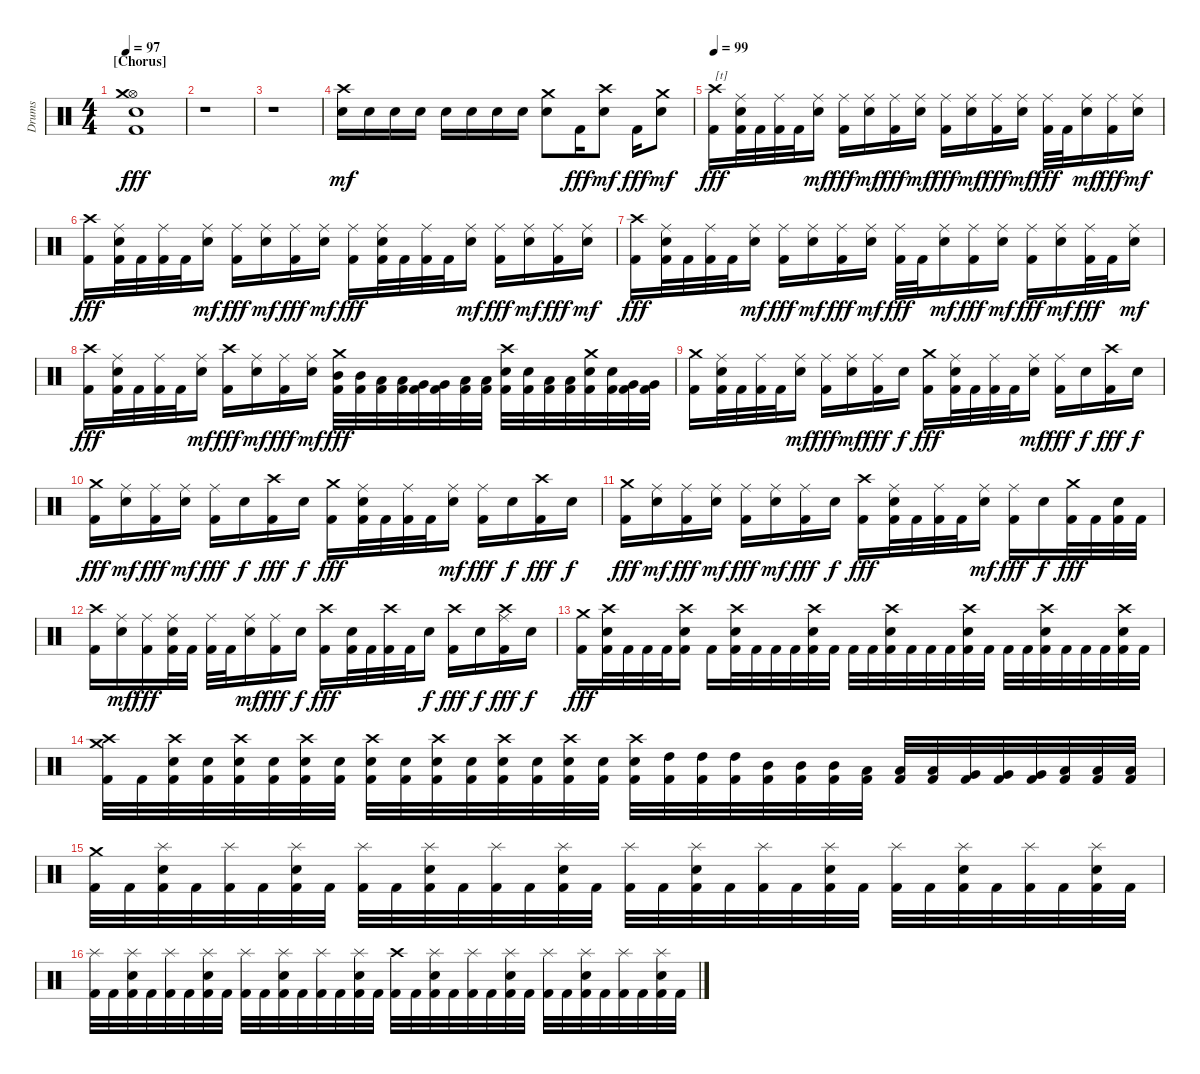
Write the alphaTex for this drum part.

\track ("Drums" "Drums") {instrument percussion}
\staff {score}
\articulation defaults
\ts (4 4)
\section ("" "[Chorus]")
\tempo 97
\clef neutral
\ks c
("Hi-Hat (open)" "Crash medium (hit)" "Snare (hit) 2" "Kick (hit) 2").1{dy fff} |
r.1 |
r.1 |
("Crash high (hit)" "Snare (hit) 2").16{dy mf} "Snare (hit) 2".16 "Snare (hit) 2".16 "Snare (hit) 2".16 "Snare (hit) 2".16 "Snare (hit) 2".16 "Snare (hit) 2".16 "Snare (hit) 2".16 ("Crash medium (hit)" "Snare (hit) 2").8 "Kick (hit) 2".16{dy fff} ("Crash high (hit)" "Snare (hit) 2").8{dy mf} "Kick (hit) 2".16{dy fff} ("Crash medium (hit)" "Snare (hit) 2").8{dy mf} |
\section ("" "")
\tempo 99
("Crash high (hit)" "Kick (hit) 2").16{txt "[t]" dy fff} ("Ride (middle)" "Snare (hit) 2" "Kick (hit) 2").32 "Kick (hit) 2".32 ("Ride (middle)" "Kick (hit) 2").32 "Kick (hit) 2".32 ("Ride (middle)" "Snare (hit) 2").16{dy mf} ("Ride (middle)" "Kick (hit) 2").16{dy fff} ("Ride (middle)" "Snare (hit) 2").16{dy mf} ("Ride (middle)" "Kick (hit) 2").16{dy fff} ("Ride (middle)" "Snare (hit) 2").16{dy mf} ("Ride (middle)" "Kick (hit) 2").16{dy fff} ("Ride (middle)" "Snare (hit) 2").16{dy mf} ("Ride (middle)" "Kick (hit) 2").16{dy fff} ("Ride (middle)" "Snare (hit) 2").16{dy mf} ("Ride (middle)" "Kick (hit) 2").32{dy fff} "Kick (hit) 2".32 ("Ride (middle)" "Snare (hit) 2").16{dy mf} ("Ride (middle)" "Kick (hit) 2").16{dy fff} ("Ride (middle)" "Snare (hit) 2").16{dy mf} |
("Crash high (hit)" "Kick (hit) 2").16{dy fff} ("Ride (middle)" "Snare (hit) 2" "Kick (hit) 2").32 "Kick (hit) 2".32 ("Ride (middle)" "Kick (hit) 2").32 "Kick (hit) 2".32 ("Ride (middle)" "Snare (hit) 2").16{dy mf} ("Ride (middle)" "Kick (hit) 2").16{dy fff} ("Ride (middle)" "Snare (hit) 2").16{dy mf} ("Ride (middle)" "Kick (hit) 2").16{dy fff} ("Ride (middle)" "Snare (hit) 2").16{dy mf} ("Ride (middle)" "Kick (hit) 2").16{dy fff} ("Ride (middle)" "Snare (hit) 2" "Kick (hit) 2").32 "Kick (hit) 2".32 ("Ride (middle)" "Kick (hit) 2").32 "Kick (hit) 2".32 ("Ride (middle)" "Snare (hit) 2").16{dy mf} ("Ride (middle)" "Kick (hit) 2").16{dy fff} ("Ride (middle)" "Snare (hit) 2").16{dy mf} ("Ride (middle)" "Kick (hit) 2").16{dy fff} ("Ride (middle)" "Snare (hit) 2").16{dy mf} |
("Crash high (hit)" "Kick (hit) 2").16{dy fff} ("Ride (middle)" "Snare (hit) 2" "Kick (hit) 2").32 "Kick (hit) 2".32 ("Ride (middle)" "Kick (hit) 2").32 "Kick (hit) 2".32 ("Ride (middle)" "Snare (hit) 2").16{dy mf} ("Ride (middle)" "Kick (hit) 2").16{dy fff} ("Ride (middle)" "Snare (hit) 2").16{dy mf} ("Ride (middle)" "Kick (hit) 2").16{dy fff} ("Ride (middle)" "Snare (hit) 2").16{dy mf} ("Ride (middle)" "Kick (hit) 2").32{dy fff} "Kick (hit) 2".32 ("Ride (middle)" "Snare (hit) 2").16{dy mf} ("Ride (middle)" "Kick (hit) 2").16{dy fff} ("Ride (middle)" "Snare (hit) 2").16{dy mf} ("Ride (middle)" "Kick (hit) 2").16{dy fff} ("Ride (middle)" "Snare (hit) 2").16{dy mf} ("Ride (middle)" "Kick (hit) 2").32{dy fff} "Kick (hit) 2".32 ("Ride (middle)" "Snare (hit) 2").16{dy mf} |
("Crash high (hit)" "Kick (hit) 2").16{dy fff} ("Ride (middle)" "Snare (hit) 2" "Kick (hit) 2").32 "Kick (hit) 2".32 ("Ride (middle)" "Kick (hit) 2").32 "Kick (hit) 2".32 ("Ride (middle)" "Snare (hit) 2").16{dy mf} ("Crash high (hit)" "Kick (hit) 2").16{dy fff} ("Ride (middle)" "Snare (hit) 2").16{dy mf} ("Ride (middle)" "Kick (hit) 2").16{dy fff} ("Ride (middle)" "Snare (hit) 2").16{dy mf} ("Crash medium (hit)" "Mid Tom (hit)" "Kick (hit) 2").32{dy fff} ("Mid Tom (hit)" "Kick (hit) 2").32 ("Low Tom (hit)" "Kick (hit) 2").32 ("Low Tom (hit)" "Kick (hit) 2").32 ("Very Low Tom (hit)" "Kick (hit) 2").32 ("Very Low Tom (hit)" "Kick (hit) 2").32 ("Low Floor Tom (hit)" "Kick (hit) 2").32 ("Low Floor Tom (hit)" "Kick (hit) 2").32 ("Crash high (hit)" "Snare (hit) 2" "Kick (hit) 2").32 ("Snare (hit) 2" "Kick (hit) 2").32 ("Low Tom (hit)" "Kick (hit) 2").32 ("Low Tom (hit)" "Kick (hit) 2").32 ("Crash medium (hit)" "Snare (hit) 2" "Kick (hit) 2").32 ("Snare (hit) 2" "Kick (hit) 2").32 ("Very Low Tom (hit)" "Kick (hit) 2").32 ("Very Low Tom (hit)" "Kick (hit) 2").32 |
("Crash medium (hit)" "Kick (hit) 2").16 ("Ride (middle)" "Snare (hit) 2" "Kick (hit) 2").32 "Kick (hit) 2".32 ("Ride (middle)" "Kick (hit) 2").32 "Kick (hit) 2".32 ("Ride (middle)" "Snare (hit) 2").16{dy mf} ("Ride (middle)" "Kick (hit) 2").16{dy fff} ("Ride (middle)" "Snare (hit) 2").16{dy mf} ("Ride (middle)" "Kick (hit) 2").16{dy fff} "Snare (hit) 2".16{dy f} ("Crash medium (hit)" "Kick (hit) 2").16{dy fff} ("Ride (middle)" "Snare (hit) 2" "Kick (hit) 2").32 "Kick (hit) 2".32 ("Ride (middle)" "Kick (hit) 2").32 "Kick (hit) 2".32 ("Ride (middle)" "Snare (hit) 2").16{dy mf} ("Ride (middle)" "Kick (hit) 2").16{dy fff} "Snare (hit) 2".16{dy f} ("Crash high (hit)" "Kick (hit) 2").16{dy fff} "Snare (hit) 2".16{dy f} |
("Crash medium (hit)" "Kick (hit) 2").16{dy fff} ("Ride (middle)" "Snare (hit) 2").16{dy mf} ("Ride (middle)" "Kick (hit) 2").16{dy fff} ("Ride (middle)" "Snare (hit) 2").16{dy mf} ("Ride (middle)" "Kick (hit) 2").16{dy fff} "Snare (hit) 2".16{dy f} ("Crash high (hit)" "Kick (hit) 2").16{dy fff} "Snare (hit) 2".16{dy f} ("Crash medium (hit)" "Kick (hit) 2").16{dy fff} ("Ride (middle)" "Snare (hit) 2" "Kick (hit) 2").32 "Kick (hit) 2".32 ("Ride (middle)" "Kick (hit) 2").32 "Kick (hit) 2".32 ("Ride (middle)" "Snare (hit) 2").16{dy mf} ("Ride (middle)" "Kick (hit) 2").16{dy fff} "Snare (hit) 2".16{dy f} ("Crash high (hit)" "Kick (hit) 2").16{dy fff} "Snare (hit) 2".16{dy f} |
("Crash medium (hit)" "Kick (hit) 2").16{dy fff} ("Ride (middle)" "Snare (hit) 2").16{dy mf} ("Ride (middle)" "Kick (hit) 2").16{dy fff} ("Ride (middle)" "Snare (hit) 2").16{dy mf} ("Ride (middle)" "Kick (hit) 2").16{dy fff} ("Ride (middle)" "Snare (hit) 2").16{dy mf} ("Ride (middle)" "Kick (hit) 2").16{dy fff} "Snare (hit) 2".16{dy f} ("Crash high (hit)" "Kick (hit) 2").16{dy fff} ("Ride (middle)" "Snare (hit) 2" "Kick (hit) 2").32 "Kick (hit) 2".32 ("Ride (middle)" "Kick (hit) 2").32 "Kick (hit) 2".32 ("Ride (middle)" "Snare (hit) 2").16{dy mf} ("Ride (middle)" "Kick (hit) 2").16{dy fff} "Snare (hit) 2".16{dy f} ("Crash medium (hit)" "Kick (hit) 2").32{dy fff} "Kick (hit) 2".32 ("Snare (hit) 2" "Kick (hit) 2").32 "Kick (hit) 2".32 |
("Crash high (hit)" "Kick (hit) 2").16 ("Ride (middle)" "Snare (hit) 2").16{dy mf} ("Ride (middle)" "Kick (hit) 2").16{dy fff} ("Ride (middle)" "Snare (hit) 2" "Kick (hit) 2").32 "Kick (hit) 2".32 ("Ride (middle)" "Kick (hit) 2").32 "Kick (hit) 2".32 ("Ride (middle)" "Snare (hit) 2").16{dy mf} ("Ride (middle)" "Kick (hit) 2").16{dy fff} "Snare (hit) 2".16{dy f} ("Crash high (hit)" "Kick (hit) 2").16{dy fff} ("Snare (hit) 2" "Kick (hit) 2").32 "Kick (hit) 2".32 ("Crash high (hit)" "Kick (hit) 2").32 "Kick (hit) 2".32 "Snare (hit) 2".16{dy f} ("Crash high (hit)" "Kick (hit) 2").16{dy fff} "Snare (hit) 2".16{dy f} ("Crash high (hit)" "Ride (middle)" "Kick (hit) 2").16{dy fff} "Snare (hit) 2".16{dy f} |
("Crash medium (hit)" "Kick (hit) 2").16{dy fff} ("Crash high (hit)" "Snare (hit) 2" "Kick (hit) 2").32 "Kick (hit) 2".32 "Kick (hit) 2".32 "Kick (hit) 2".32 ("Crash high (hit)" "Snare (hit) 2" "Kick (hit) 2").16 "Kick (hit) 2".16 ("Crash high (hit)" "Snare (hit) 2" "Kick (hit) 2").32 "Kick (hit) 2".32 "Kick (hit) 2".32 "Kick (hit) 2".32 ("Crash high (hit)" "Snare (hit) 2" "Kick (hit) 2").32 "Kick (hit) 2".32 "Kick (hit) 2".32 "Kick (hit) 2".32 ("Crash high (hit)" "Snare (hit) 2" "Kick (hit) 2").32 "Kick (hit) 2".32 "Kick (hit) 2".32 "Kick (hit) 2".32 ("Crash high (hit)" "Snare (hit) 2" "Kick (hit) 2").32 "Kick (hit) 2".32 "Kick (hit) 2".32 "Kick (hit) 2".32 ("Crash high (hit)" "Snare (hit) 2" "Kick (hit) 2").32 "Kick (hit) 2".32 "Kick (hit) 2".32 "Kick (hit) 2".32 ("Crash high (hit)" "Snare (hit) 2" "Kick (hit) 2").32 "Kick (hit) 2".32 |
("Crash high (hit)" "Crash medium (hit)" "Kick (hit) 2").32 "Kick (hit) 2".32 ("Crash high (hit)" "Snare (hit) 2" "Kick (hit) 2").32 ("Snare (hit) 2" "Kick (hit) 2").32 ("Crash high (hit)" "Snare (hit) 2" "Kick (hit) 2").32 ("Snare (hit) 2" "Kick (hit) 2").32 ("Crash high (hit)" "Snare (hit) 2" "Kick (hit) 2").32 ("Snare (hit) 2" "Kick (hit) 2").32 ("Crash high (hit)" "Snare (hit) 2" "Kick (hit) 2").32 ("Snare (hit) 2" "Kick (hit) 2").32 ("Crash high (hit)" "Snare (hit) 2" "Kick (hit) 2").32 ("Snare (hit) 2" "Kick (hit) 2").32 ("Crash high (hit)" "Snare (hit) 2" "Kick (hit) 2").32 ("Snare (hit) 2" "Kick (hit) 2").32 ("Crash high (hit)" "Snare (hit) 2" "Kick (hit) 2").32 ("Snare (hit) 2" "Kick (hit) 2").32 ("Crash high (hit)" "Snare (hit) 2" "Kick (hit) 2").32 ("High Tom (hit)" "Kick (hit) 2").32 ("High Tom (hit)" "Kick (hit) 2").32 ("High Tom (hit)" "Kick (hit) 2").32 ("Mid Tom (hit)" "Kick (hit) 2").32 ("Mid Tom (hit)" "Kick (hit) 2").32 ("Mid Tom (hit)" "Kick (hit) 2").32 ("Low Tom (hit)" "Kick (hit) 2").32 ("Low Tom (hit)" "Kick (hit) 2").32 ("Low Tom (hit)" "Kick (hit) 2").32 ("Very Low Tom (hit)" "Kick (hit) 2").32 ("Very Low Tom (hit)" "Kick (hit) 2").32 ("Very Low Tom (hit)" "Kick (hit) 2").32 ("Low Floor Tom (hit)" "Kick (hit) 2").32 ("Low Floor Tom (hit)" "Kick (hit) 2").32 ("Low Floor Tom (hit)" "Kick (hit) 2").32 |
\section ("" "")
("Crash medium (hit)" "Kick (hit) 2").32 "Kick (hit) 2".32 ("Splash (hit)" "Snare (hit) 2" "Kick (hit) 2").32 "Kick (hit) 2".32 ("Splash (hit)" "Kick (hit) 2").32 "Kick (hit) 2".32 ("Splash (hit)" "Snare (hit) 2" "Kick (hit) 2").32 "Kick (hit) 2".32 ("Splash (hit)" "Kick (hit) 2").32 "Kick (hit) 2".32 ("Splash (hit)" "Snare (hit) 2" "Kick (hit) 2").32 "Kick (hit) 2".32 ("Splash (hit)" "Kick (hit) 2").32 "Kick (hit) 2".32 ("Splash (hit)" "Snare (hit) 2" "Kick (hit) 2").32 "Kick (hit) 2".32 ("Splash (hit)" "Kick (hit) 2").32 "Kick (hit) 2".32 ("Splash (hit)" "Snare (hit) 2" "Kick (hit) 2").32 "Kick (hit) 2".32 ("Splash (hit)" "Kick (hit) 2").32 "Kick (hit) 2".32 ("Splash (hit)" "Snare (hit) 2" "Kick (hit) 2").32 "Kick (hit) 2".32 ("Splash (hit)" "Kick (hit) 2").32 "Kick (hit) 2".32 ("Splash (hit)" "Snare (hit) 2" "Kick (hit) 2").32 "Kick (hit) 2".32 ("Splash (hit)" "Kick (hit) 2").32 "Kick (hit) 2".32 ("Splash (hit)" "Snare (hit) 2" "Kick (hit) 2").32 "Kick (hit) 2".32 |
("Splash (hit)" "Kick (hit) 2").32 "Kick (hit) 2".32 ("Splash (hit)" "Snare (hit) 2" "Kick (hit) 2").32 "Kick (hit) 2".32 ("Splash (hit)" "Kick (hit) 2").32 "Kick (hit) 2".32 ("Splash (hit)" "Snare (hit) 2" "Kick (hit) 2").32 "Kick (hit) 2".32 ("Splash (hit)" "Kick (hit) 2").32 "Kick (hit) 2".32 ("Splash (hit)" "Snare (hit) 2" "Kick (hit) 2").32 "Kick (hit) 2".32 ("Splash (hit)" "Kick (hit) 2").32 "Kick (hit) 2".32 ("Splash (hit)" "Snare (hit) 2" "Kick (hit) 2").32 "Kick (hit) 2".32 ("Crash high (hit)" "Kick (hit) 2").32 "Kick (hit) 2".32 ("Splash (hit)" "Snare (hit) 2" "Kick (hit) 2").32 "Kick (hit) 2".32 ("Splash (hit)" "Kick (hit) 2").32 "Kick (hit) 2".32 ("Splash (hit)" "Snare (hit) 2" "Kick (hit) 2").32 "Kick (hit) 2".32 ("Splash (hit)" "Kick (hit) 2").32 "Kick (hit) 2".32 ("Splash (hit)" "Snare (hit) 2" "Kick (hit) 2").32 "Kick (hit) 2".32 ("Splash (hit)" "Kick (hit) 2").32 "Kick (hit) 2".32 ("Splash (hit)" "Snare (hit) 2" "Kick (hit) 2").32 "Kick (hit) 2".32
